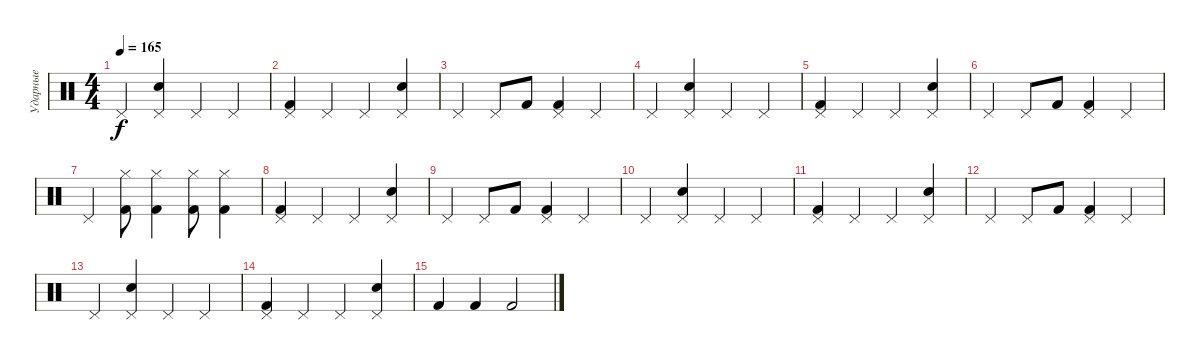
\track ("Ударные" "Ударные") {instrument percussion}
\staff {score}
\articulation defaults
\ts (4 4)
\tempo 165
\clef neutral
\ks c "Pedal Hi-Hat (hit)".4{dy f}
("Pedal Hi-Hat (hit)" "Snare (hit) 2").4 "Pedal Hi-Hat (hit)".4 "Pedal Hi-Hat (hit)".4 |
("Pedal Hi-Hat (hit)" "Kick (hit) 2").4 "Pedal Hi-Hat (hit)".4 "Pedal Hi-Hat (hit)".4 ("Pedal Hi-Hat (hit)" "Snare (hit) 2").4 |
"Pedal Hi-Hat (hit)".4 "Pedal Hi-Hat (hit)".8 "Kick (hit) 2".8 ("Pedal Hi-Hat (hit)" "Kick (hit) 2").4 "Pedal Hi-Hat (hit)".4 |
"Pedal Hi-Hat (hit)".4 ("Pedal Hi-Hat (hit)" "Snare (hit) 2").4 "Pedal Hi-Hat (hit)".4 "Pedal Hi-Hat (hit)".4 |
("Pedal Hi-Hat (hit)" "Kick (hit) 2").4 "Pedal Hi-Hat (hit)".4 "Pedal Hi-Hat (hit)".4 ("Pedal Hi-Hat (hit)" "Snare (hit) 2").4 |
"Pedal Hi-Hat (hit)".4 "Pedal Hi-Hat (hit)".8 "Kick (hit) 2".8 ("Pedal Hi-Hat (hit)" "Kick (hit) 2").4 "Pedal Hi-Hat (hit)".4 |
"Pedal Hi-Hat (hit)".4 ("Hi-Hat (closed)" "Kick (hit) 2").8 ("Hi-Hat (closed)" "Kick (hit) 2").4 ("Hi-Hat (closed)" "Kick (hit) 2").8 ("Hi-Hat (closed)" "Kick (hit) 2").4 |
("Pedal Hi-Hat (hit)" "Kick (hit) 2").4 "Pedal Hi-Hat (hit)".4 "Pedal Hi-Hat (hit)".4 ("Pedal Hi-Hat (hit)" "Snare (hit) 2").4 |
"Pedal Hi-Hat (hit)".4 "Pedal Hi-Hat (hit)".8 "Kick (hit) 2".8 ("Pedal Hi-Hat (hit)" "Kick (hit) 2").4 "Pedal Hi-Hat (hit)".4 |
"Pedal Hi-Hat (hit)".4 ("Pedal Hi-Hat (hit)" "Snare (hit) 2").4 "Pedal Hi-Hat (hit)".4 "Pedal Hi-Hat (hit)".4 |
("Pedal Hi-Hat (hit)" "Kick (hit) 2").4 "Pedal Hi-Hat (hit)".4 "Pedal Hi-Hat (hit)".4 ("Pedal Hi-Hat (hit)" "Snare (hit) 2").4 |
"Pedal Hi-Hat (hit)".4 "Pedal Hi-Hat (hit)".8 "Kick (hit) 2".8 ("Pedal Hi-Hat (hit)" "Kick (hit) 2").4 "Pedal Hi-Hat (hit)".4 |
"Pedal Hi-Hat (hit)".4 ("Pedal Hi-Hat (hit)" "Snare (hit) 2").4 "Pedal Hi-Hat (hit)".4 "Pedal Hi-Hat (hit)".4 |
("Pedal Hi-Hat (hit)" "Kick (hit) 2").4 "Pedal Hi-Hat (hit)".4 "Pedal Hi-Hat (hit)".4 ("Pedal Hi-Hat (hit)" "Snare (hit) 2").4 |
"Kick (hit) 2".4 "Kick (hit) 2".4 "Kick (hit) 2".2
